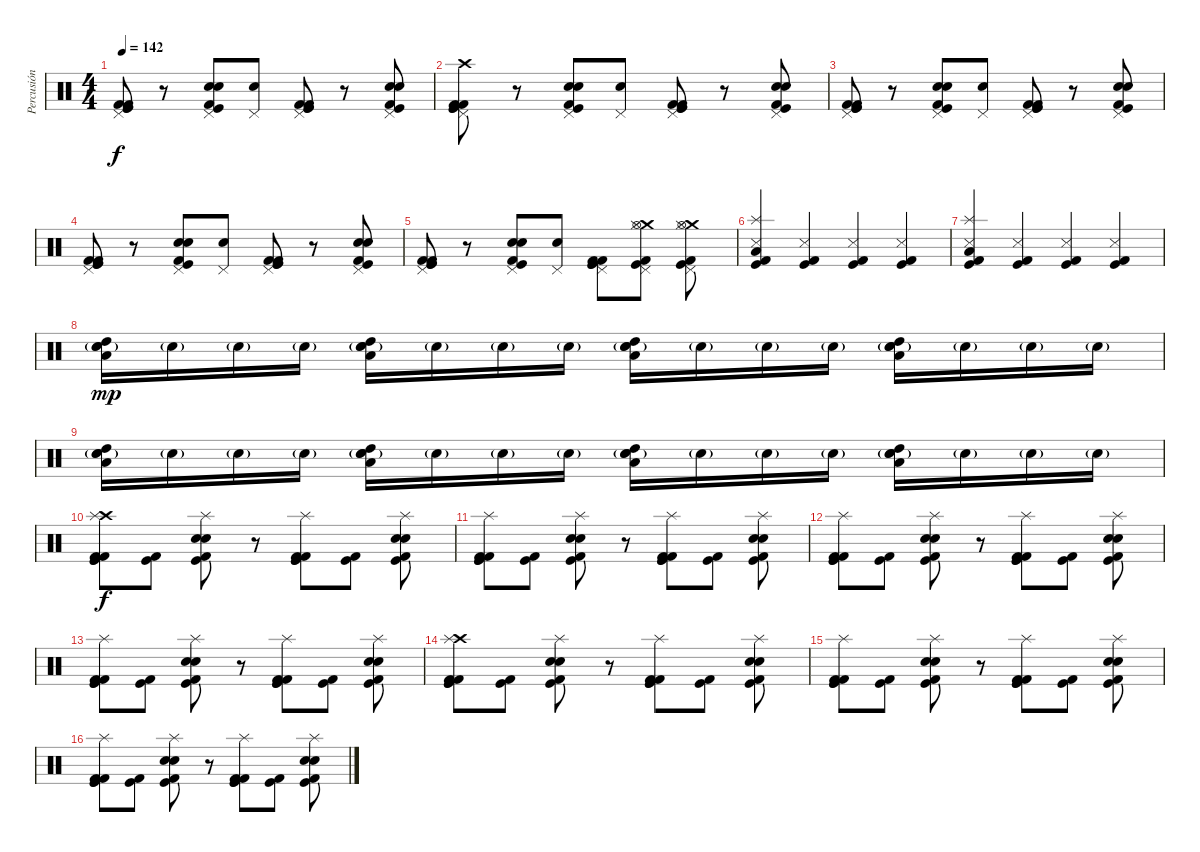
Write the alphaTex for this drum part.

\track ("Percusión" "Percusión") {instrument percussion}
\staff {score}
\articulation defaults
\ts (4 4)
\tempo 142
\clef neutral
\ks c
("Kick (hit) 2" "Kick (hit)" "Pedal Hi-Hat (hit)" "Kick (hit) 2" "Kick (hit)").8{dy f} r.8 ("Snare (hit) 2" "Pedal Hi-Hat (hit)" "Electric Snare (hit)" "Kick (hit)" "Kick (hit) 2").8 ("Pedal Hi-Hat (hit)" "Electric Snare (hit)").8 ("Kick (hit) 2" "Kick (hit)" "Pedal Hi-Hat (hit)" "Kick (hit) 2" "Kick (hit)").8 r.8 ("Snare (hit) 2" "Pedal Hi-Hat (hit)" "Electric Snare (hit)" "Kick (hit)" "Kick (hit) 2").8 |
("Kick (hit) 2" "Kick (hit)" "Crash high (hit)" "Pedal Hi-Hat (hit)" "Kick (hit) 2" "Kick (hit)").8 r.8 ("Snare (hit) 2" "Pedal Hi-Hat (hit)" "Electric Snare (hit)" "Kick (hit)" "Kick (hit) 2").8 ("Pedal Hi-Hat (hit)" "Electric Snare (hit)").8 ("Kick (hit) 2" "Kick (hit)" "Pedal Hi-Hat (hit)" "Kick (hit) 2" "Kick (hit)").8 r.8 ("Snare (hit) 2" "Pedal Hi-Hat (hit)" "Electric Snare (hit)" "Kick (hit)" "Kick (hit) 2").8 |
("Kick (hit) 2" "Kick (hit)" "Pedal Hi-Hat (hit)" "Kick (hit) 2" "Kick (hit)").8 r.8 ("Snare (hit) 2" "Pedal Hi-Hat (hit)" "Electric Snare (hit)" "Kick (hit)" "Kick (hit) 2").8 ("Pedal Hi-Hat (hit)" "Electric Snare (hit)").8 ("Kick (hit) 2" "Kick (hit)" "Pedal Hi-Hat (hit)" "Kick (hit) 2" "Kick (hit)").8 r.8 ("Snare (hit) 2" "Pedal Hi-Hat (hit)" "Electric Snare (hit)" "Kick (hit)" "Kick (hit) 2").8 |
("Kick (hit) 2" "Kick (hit)" "Pedal Hi-Hat (hit)" "Kick (hit) 2" "Kick (hit)").8 r.8 ("Snare (hit) 2" "Pedal Hi-Hat (hit)" "Electric Snare (hit)" "Kick (hit)" "Kick (hit) 2").8 ("Pedal Hi-Hat (hit)" "Electric Snare (hit)").8 ("Kick (hit) 2" "Kick (hit)" "Pedal Hi-Hat (hit)" "Kick (hit) 2" "Kick (hit)").8 r.8 ("Snare (hit) 2" "Pedal Hi-Hat (hit)" "Electric Snare (hit)" "Kick (hit)" "Kick (hit) 2").8 |
("Kick (hit) 2" "Kick (hit)" "Pedal Hi-Hat (hit)" "Kick (hit) 2" "Kick (hit)").8 r.8 ("Snare (hit) 2" "Pedal Hi-Hat (hit)" "Electric Snare (hit)" "Kick (hit)" "Kick (hit) 2").8 ("Pedal Hi-Hat (hit)" "Electric Snare (hit)").8 ("Kick (hit) 2" "Kick (hit)" "Pedal Hi-Hat (hit)" "Kick (hit) 2" "Kick (hit)").8 ("Crash medium (hit)" "Hi-Hat (open)" "Pedal Hi-Hat (hit)" "Hi-Hat (closed)" "Kick (hit)" "Kick (hit) 2").8 ("Crash medium (hit)" "Hi-Hat (open)" "Pedal Hi-Hat (hit)" "Hi-Hat (closed)" "Kick (hit)" "Kick (hit) 2").8 |
("Splash (hit)" "Low Tom (hit)" "Kick (hit) 2" "Kick (hit)" "Snare (side stick) 3").4 ("Kick (hit) 2" "Kick (hit)" "Snare (side stick) 3").4 ("Kick (hit) 2" "Kick (hit)" "Snare (side stick) 3").4 ("Kick (hit) 2" "Kick (hit)" "Snare (side stick) 3").4 |
("Splash (hit)" "Low Tom (hit)" "Kick (hit) 2" "Kick (hit)" "Snare (side stick) 3").4 ("Kick (hit) 2" "Kick (hit)" "Snare (side stick) 3").4 ("Kick (hit) 2" "Kick (hit)" "Snare (side stick) 3").4 ("Kick (hit) 2" "Kick (hit)" "Snare (side stick) 3").4 |
("Low Tom (hit)" "Snare (hit) 2" "High Tom (hit)" "Electric Snare (hit)"{g}).16{dy mp} "Electric Snare (hit)"{g}.16 "Electric Snare (hit)"{g}.16 "Electric Snare (hit)"{g}.16 ("Low Tom (hit)" "Snare (hit) 2" "High Tom (hit)" "Electric Snare (hit)"{g}).16 "Electric Snare (hit)"{g}.16 "Electric Snare (hit)"{g}.16 "Electric Snare (hit)"{g}.16 ("Low Tom (hit)" "Snare (hit) 2" "High Tom (hit)" "Electric Snare (hit)"{g}).16 "Electric Snare (hit)"{g}.16 "Electric Snare (hit)"{g}.16 "Electric Snare (hit)"{g}.16 ("Low Tom (hit)" "Snare (hit) 2" "High Tom (hit)" "Electric Snare (hit)"{g}).16 "Electric Snare (hit)"{g}.16 "Electric Snare (hit)"{g}.16 "Electric Snare (hit)"{g}.16 |
("Low Tom (hit)" "Snare (hit) 2" "High Tom (hit)" "Electric Snare (hit)"{g}).16 "Electric Snare (hit)"{g}.16 "Electric Snare (hit)"{g}.16 "Electric Snare (hit)"{g}.16 ("Low Tom (hit)" "Snare (hit) 2" "High Tom (hit)" "Electric Snare (hit)"{g}).16 "Electric Snare (hit)"{g}.16 "Electric Snare (hit)"{g}.16 "Electric Snare (hit)"{g}.16 ("Low Tom (hit)" "Snare (hit) 2" "High Tom (hit)" "Electric Snare (hit)"{g}).16 "Electric Snare (hit)"{g}.16 "Electric Snare (hit)"{g}.16 "Electric Snare (hit)"{g}.16 ("Low Tom (hit)" "Snare (hit) 2" "High Tom (hit)" "Electric Snare (hit)"{g}).16 "Electric Snare (hit)"{g}.16 "Electric Snare (hit)"{g}.16 "Electric Snare (hit)"{g}.16 |
("Kick (hit) 2" "Kick (hit)" "Crash high (hit)" "Splash (hit)" "Kick (hit) 2" "Kick (hit)").8{dy f} ("Kick (hit)" "Kick (hit) 2").8 ("Snare (hit) 2" "Splash (hit)" "Electric Snare (hit)" "Kick (hit)" "Kick (hit) 2").8 r.8 ("Kick (hit) 2" "Kick (hit)" "Splash (hit)" "Kick (hit) 2" "Kick (hit)").8 ("Kick (hit) 2" "Kick (hit)").8 ("Snare (hit) 2" "Splash (hit)" "Electric Snare (hit)" "Kick (hit)" "Kick (hit) 2").8 |
("Kick (hit) 2" "Kick (hit)" "Splash (hit)" "Kick (hit) 2" "Kick (hit)").8 ("Kick (hit) 2" "Kick (hit)").8 ("Snare (hit) 2" "Splash (hit)" "Electric Snare (hit)" "Kick (hit)" "Kick (hit) 2").8 r.8 ("Kick (hit) 2" "Kick (hit)" "Splash (hit)" "Kick (hit) 2" "Kick (hit)").8 ("Kick (hit) 2" "Kick (hit)").8 ("Snare (hit) 2" "Splash (hit)" "Electric Snare (hit)" "Kick (hit)" "Kick (hit) 2").8 |
("Kick (hit) 2" "Kick (hit)" "Splash (hit)" "Kick (hit) 2" "Kick (hit)").8 ("Kick (hit) 2" "Kick (hit)").8 ("Snare (hit) 2" "Splash (hit)" "Electric Snare (hit)" "Kick (hit)" "Kick (hit) 2").8 r.8 ("Kick (hit) 2" "Kick (hit)" "Splash (hit)" "Kick (hit) 2" "Kick (hit)").8 ("Kick (hit) 2" "Kick (hit)").8 ("Snare (hit) 2" "Splash (hit)" "Electric Snare (hit)" "Kick (hit)" "Kick (hit) 2").8 |
("Kick (hit) 2" "Kick (hit)" "Splash (hit)" "Kick (hit) 2" "Kick (hit)").8 ("Kick (hit) 2" "Kick (hit)").8 ("Snare (hit) 2" "Splash (hit)" "Electric Snare (hit)" "Kick (hit)" "Kick (hit) 2").8 r.8 ("Kick (hit) 2" "Kick (hit)" "Splash (hit)" "Kick (hit) 2" "Kick (hit)").8 ("Kick (hit) 2" "Kick (hit)").8 ("Snare (hit) 2" "Splash (hit)" "Electric Snare (hit)" "Kick (hit)" "Kick (hit) 2").8 |
("Kick (hit) 2" "Kick (hit)" "Crash high (hit)" "Splash (hit)" "Kick (hit) 2" "Kick (hit)").8 ("Kick (hit) 2" "Kick (hit)").8 ("Snare (hit) 2" "Splash (hit)" "Electric Snare (hit)" "Kick (hit)" "Kick (hit) 2").8 r.8 ("Kick (hit) 2" "Kick (hit)" "Splash (hit)" "Kick (hit) 2" "Kick (hit)").8 ("Kick (hit) 2" "Kick (hit)").8 ("Snare (hit) 2" "Splash (hit)" "Electric Snare (hit)" "Kick (hit)" "Kick (hit) 2").8 |
("Kick (hit) 2" "Kick (hit)" "Splash (hit)" "Kick (hit) 2" "Kick (hit)").8 ("Kick (hit) 2" "Kick (hit)").8 ("Snare (hit) 2" "Splash (hit)" "Electric Snare (hit)" "Kick (hit)" "Kick (hit) 2").8 r.8 ("Kick (hit) 2" "Kick (hit)" "Splash (hit)" "Kick (hit) 2" "Kick (hit)").8 ("Kick (hit) 2" "Kick (hit)").8 ("Snare (hit) 2" "Splash (hit)" "Electric Snare (hit)" "Kick (hit)" "Kick (hit) 2").8 |
("Kick (hit) 2" "Kick (hit)" "Splash (hit)" "Kick (hit) 2" "Kick (hit)").8 ("Kick (hit) 2" "Kick (hit)").8 ("Snare (hit) 2" "Splash (hit)" "Electric Snare (hit)" "Kick (hit)" "Kick (hit) 2").8 r.8 ("Kick (hit) 2" "Kick (hit)" "Splash (hit)" "Kick (hit) 2" "Kick (hit)").8 ("Kick (hit) 2" "Kick (hit)").8 ("Snare (hit) 2" "Splash (hit)" "Electric Snare (hit)" "Kick (hit)" "Kick (hit) 2").8
